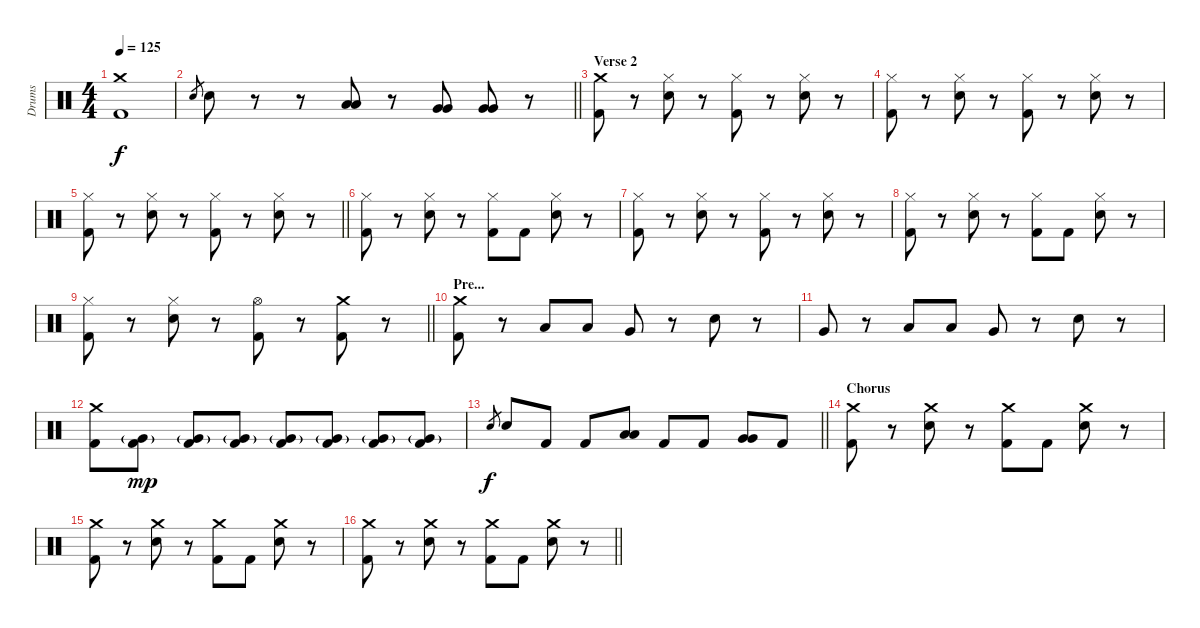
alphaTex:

\track ("Drums" "Drums") {instrument percussion}
\staff {score}
\articulation defaults
\ts (4 4)
\tempo 125
\clef neutral
\ks c
("Crash medium (hit)" "Kick (hit) 2").1{dy f} |
\barLineRight lightlight "Electric Snare (hit)".8{gr} "Electric Snare (hit)".8
r.8 r.8 ("Low Tom (hit)" "Low Tom (hit)").8 r.8 ("Very Low Tom (hit)" "Very Low Tom (hit)").8 ("Very Low Tom (hit)" "Very Low Tom (hit)").8 r.8 |
\section ("" "Verse 2")
("Crash medium (hit)" "Kick (hit) 2").8 r.8 ("Hi-Hat (closed)" "Electric Snare (hit)").8 r.8 ("Hi-Hat (closed)" "Kick (hit) 2").8 r.8 ("Hi-Hat (closed)" "Electric Snare (hit)").8 r.8 |
("Hi-Hat (closed)" "Kick (hit) 2").8 r.8 ("Hi-Hat (closed)" "Electric Snare (hit)").8 r.8 ("Hi-Hat (closed)" "Kick (hit) 2").8 r.8 ("Hi-Hat (closed)" "Electric Snare (hit)").8 r.8 |
\barLineRight lightlight
("Hi-Hat (closed)" "Kick (hit) 2").8 r.8 ("Hi-Hat (closed)" "Electric Snare (hit)").8 r.8 ("Hi-Hat (closed)" "Kick (hit) 2").8 r.8 ("Hi-Hat (closed)" "Electric Snare (hit)").8 r.8 |
("Hi-Hat (closed)" "Kick (hit) 2").8 r.8 ("Hi-Hat (closed)" "Electric Snare (hit)").8 r.8 ("Hi-Hat (closed)" "Kick (hit) 2").8 "Kick (hit) 2".8 ("Hi-Hat (closed)" "Electric Snare (hit)").8 r.8 |
("Hi-Hat (closed)" "Kick (hit) 2").8 r.8 ("Hi-Hat (closed)" "Electric Snare (hit)").8 r.8 ("Hi-Hat (closed)" "Kick (hit) 2").8 r.8 ("Hi-Hat (closed)" "Electric Snare (hit)").8 r.8 |
("Hi-Hat (closed)" "Kick (hit) 2").8 r.8 ("Hi-Hat (closed)" "Electric Snare (hit)").8 r.8 ("Hi-Hat (closed)" "Kick (hit) 2").8 "Kick (hit) 2".8 ("Hi-Hat (closed)" "Electric Snare (hit)").8 r.8 |
\barLineRight lightlight
("Hi-Hat (closed)" "Kick (hit) 2").8 r.8 ("Hi-Hat (closed)" "Electric Snare (hit)").8 r.8 ("Hi-Hat (open)" "Kick (hit) 2").8 r.8 ("Crash medium (hit)" "Kick (hit) 2").8 r.8 |
\section ("" "Pre...")
("Crash medium (hit)" "Kick (hit) 2").8 r.8 "Low Tom (hit)".8 "Low Tom (hit)".8 "Very Low Tom (hit)".8 r.8 "Electric Snare (hit)".8 r.8 |
"Very Low Tom (hit)".8 r.8 "Low Tom (hit)".8 "Low Tom (hit)".8 "Very Low Tom (hit)".8 r.8 "Electric Snare (hit)".8 r.8 |
("Crash medium (hit)" "Kick (hit) 2").8 ("Kick (hit) 2" "Very Low Tom (hit)"{g}).8{dy mp} ("Kick (hit) 2" "Very Low Tom (hit)"{g}).8 ("Kick (hit) 2" "Very Low Tom (hit)"{g}).8 ("Kick (hit) 2" "Very Low Tom (hit)"{g}).8 ("Kick (hit) 2" "Very Low Tom (hit)"{g}).8 ("Kick (hit) 2" "Very Low Tom (hit)"{g}).8 ("Kick (hit) 2" "Very Low Tom (hit)"{g}).8 |
\barLineRight lightlight "Electric Snare (hit)".8{gr dy f} "Electric Snare (hit)".8 "Kick (hit) 2".8 "Kick (hit) 2".8
("Low Tom (hit)" "Low Tom (hit)").8 "Kick (hit) 2".8 "Kick (hit) 2".8 ("Very Low Tom (hit)" "Very Low Tom (hit)").8 "Kick (hit) 2".8 |
\section ("" "Chorus")
("Crash medium (hit)" "Kick (hit) 2").8 r.8 ("Crash medium (hit)" "Electric Snare (hit)").8 r.8 ("Crash medium (hit)" "Kick (hit) 2").8 "Kick (hit) 2".8 ("Crash medium (hit)" "Electric Snare (hit)").8 r.8 |
("Crash medium (hit)" "Kick (hit) 2").8 r.8 ("Crash medium (hit)" "Electric Snare (hit)").8 r.8 ("Crash medium (hit)" "Kick (hit) 2").8 "Kick (hit) 2".8 ("Crash medium (hit)" "Electric Snare (hit)").8 r.8 |
\barLineRight lightlight
("Crash medium (hit)" "Kick (hit) 2").8 r.8 ("Crash medium (hit)" "Electric Snare (hit)").8 r.8 ("Crash medium (hit)" "Kick (hit) 2").8 "Kick (hit) 2".8 ("Crash medium (hit)" "Electric Snare (hit)").8 r.8
